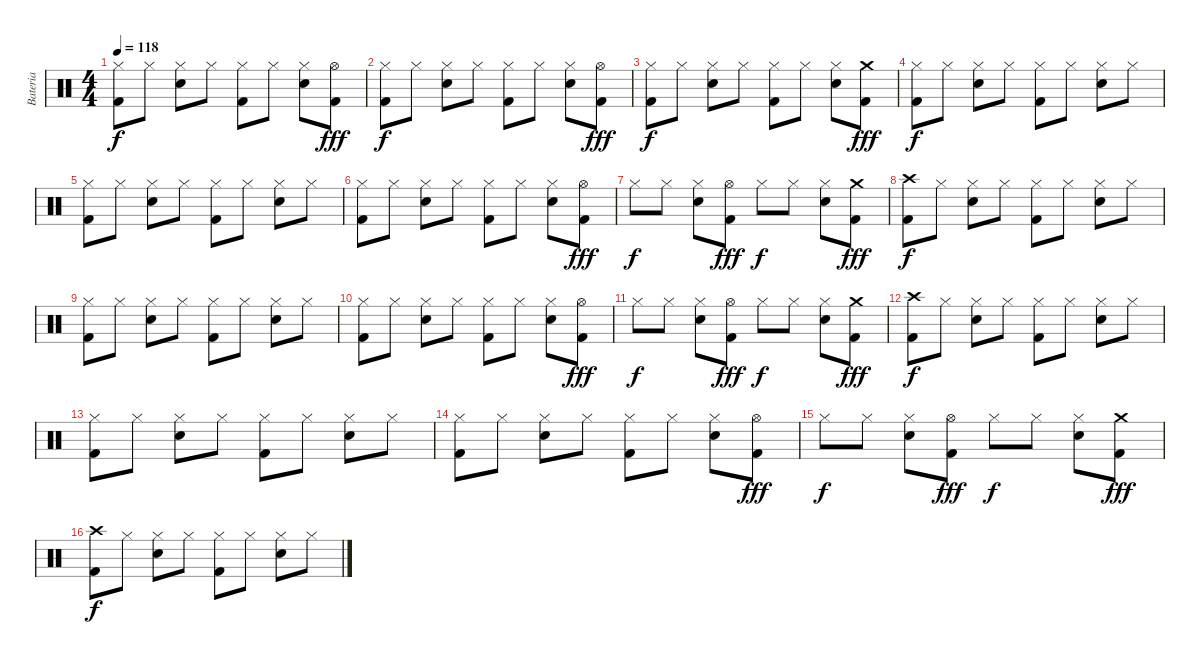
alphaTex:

\track ("Bateria" "Bateria") {instrument percussion}
\staff {score}
\articulation defaults
\ts (4 4)
\tempo 118
\clef neutral
\ks c
("Kick (hit) 2" "Hi-Hat (closed)").8{dy f} "Hi-Hat (closed)".8 ("Electric Snare (hit)" "Hi-Hat (closed)").8 "Hi-Hat (closed)".8 ("Kick (hit) 2" "Hi-Hat (closed)").8 "Hi-Hat (closed)".8 ("Electric Snare (hit)" "Hi-Hat (closed)").8 ("Kick (hit) 2" "Hi-Hat (open)").8{dy fff} |
("Kick (hit) 2" "Hi-Hat (closed)").8{dy f} "Hi-Hat (closed)".8 ("Electric Snare (hit)" "Hi-Hat (closed)").8 "Hi-Hat (closed)".8 ("Kick (hit) 2" "Hi-Hat (closed)").8 "Hi-Hat (closed)".8 ("Electric Snare (hit)" "Hi-Hat (closed)").8 ("Kick (hit) 2" "Hi-Hat (open)").8{dy fff} |
("Kick (hit) 2" "Hi-Hat (closed)").8{dy f} "Hi-Hat (closed)".8 ("Electric Snare (hit)" "Hi-Hat (closed)").8 "Hi-Hat (closed)".8 ("Kick (hit) 2" "Hi-Hat (closed)").8 "Hi-Hat (closed)".8 ("Electric Snare (hit)" "Hi-Hat (closed)").8 ("Crash medium (hit)" "Kick (hit) 2").8{dy fff} |
("Kick (hit) 2" "Hi-Hat (closed)").8{dy f} "Hi-Hat (closed)".8 ("Electric Snare (hit)" "Hi-Hat (closed)").8 "Hi-Hat (closed)".8 ("Kick (hit) 2" "Hi-Hat (closed)").8 "Hi-Hat (closed)".8 ("Electric Snare (hit)" "Hi-Hat (closed)").8 "Hi-Hat (closed)".8 |
("Kick (hit) 2" "Hi-Hat (closed)").8 "Hi-Hat (closed)".8 ("Electric Snare (hit)" "Hi-Hat (closed)").8 "Hi-Hat (closed)".8 ("Kick (hit) 2" "Hi-Hat (closed)").8 "Hi-Hat (closed)".8 ("Electric Snare (hit)" "Hi-Hat (closed)").8 "Hi-Hat (closed)".8 |
("Kick (hit) 2" "Hi-Hat (closed)").8 "Hi-Hat (closed)".8 ("Electric Snare (hit)" "Hi-Hat (closed)").8 "Hi-Hat (closed)".8 ("Kick (hit) 2" "Hi-Hat (closed)").8 "Hi-Hat (closed)".8 ("Electric Snare (hit)" "Hi-Hat (closed)").8 ("Kick (hit) 2" "Hi-Hat (open)").8{dy fff} |
"Hi-Hat (closed)".8{dy f} "Hi-Hat (closed)".8 ("Electric Snare (hit)" "Hi-Hat (closed)").8 ("Kick (hit) 2" "Hi-Hat (open)").8{dy fff} "Hi-Hat (closed)".8{dy f} "Hi-Hat (closed)".8 ("Electric Snare (hit)" "Hi-Hat (closed)").8 ("Kick (hit) 2" "Crash medium (hit)").8{dy fff} |
("Crash high (hit)" "Kick (hit) 2").8{dy f} "Hi-Hat (closed)".8 ("Electric Snare (hit)" "Hi-Hat (closed)").8 "Hi-Hat (closed)".8 ("Kick (hit) 2" "Hi-Hat (closed)").8 "Hi-Hat (closed)".8 ("Electric Snare (hit)" "Hi-Hat (closed)").8 "Hi-Hat (closed)".8 |
("Kick (hit) 2" "Hi-Hat (closed)").8 "Hi-Hat (closed)".8 ("Electric Snare (hit)" "Hi-Hat (closed)").8 "Hi-Hat (closed)".8 ("Kick (hit) 2" "Hi-Hat (closed)").8 "Hi-Hat (closed)".8 ("Electric Snare (hit)" "Hi-Hat (closed)").8 "Hi-Hat (closed)".8 |
("Kick (hit) 2" "Hi-Hat (closed)").8 "Hi-Hat (closed)".8 ("Electric Snare (hit)" "Hi-Hat (closed)").8 "Hi-Hat (closed)".8 ("Kick (hit) 2" "Hi-Hat (closed)").8 "Hi-Hat (closed)".8 ("Electric Snare (hit)" "Hi-Hat (closed)").8 ("Kick (hit) 2" "Hi-Hat (open)").8{dy fff} |
"Hi-Hat (closed)".8{dy f} "Hi-Hat (closed)".8 ("Electric Snare (hit)" "Hi-Hat (closed)").8 ("Kick (hit) 2" "Hi-Hat (open)").8{dy fff} "Hi-Hat (closed)".8{dy f} "Hi-Hat (closed)".8 ("Electric Snare (hit)" "Hi-Hat (closed)").8 ("Kick (hit) 2" "Crash medium (hit)").8{dy fff} |
("Crash high (hit)" "Kick (hit) 2").8{dy f} "Hi-Hat (closed)".8 ("Electric Snare (hit)" "Hi-Hat (closed)").8 "Hi-Hat (closed)".8 ("Kick (hit) 2" "Hi-Hat (closed)").8 "Hi-Hat (closed)".8 ("Electric Snare (hit)" "Hi-Hat (closed)").8 "Hi-Hat (closed)".8 |
("Kick (hit) 2" "Hi-Hat (closed)").8 "Hi-Hat (closed)".8 ("Electric Snare (hit)" "Hi-Hat (closed)").8 "Hi-Hat (closed)".8 ("Kick (hit) 2" "Hi-Hat (closed)").8 "Hi-Hat (closed)".8 ("Electric Snare (hit)" "Hi-Hat (closed)").8 "Hi-Hat (closed)".8 |
("Kick (hit) 2" "Hi-Hat (closed)").8 "Hi-Hat (closed)".8 ("Electric Snare (hit)" "Hi-Hat (closed)").8 "Hi-Hat (closed)".8 ("Kick (hit) 2" "Hi-Hat (closed)").8 "Hi-Hat (closed)".8 ("Electric Snare (hit)" "Hi-Hat (closed)").8 ("Kick (hit) 2" "Hi-Hat (open)").8{dy fff} |
"Hi-Hat (closed)".8{dy f} "Hi-Hat (closed)".8 ("Electric Snare (hit)" "Hi-Hat (closed)").8 ("Kick (hit) 2" "Hi-Hat (open)").8{dy fff} "Hi-Hat (closed)".8{dy f} "Hi-Hat (closed)".8 ("Electric Snare (hit)" "Hi-Hat (closed)").8 ("Kick (hit) 2" "Crash medium (hit)").8{dy fff} |
("Crash high (hit)" "Kick (hit) 2").8{dy f} "Hi-Hat (closed)".8 ("Electric Snare (hit)" "Hi-Hat (closed)").8 "Hi-Hat (closed)".8 ("Kick (hit) 2" "Hi-Hat (closed)").8 "Hi-Hat (closed)".8 ("Electric Snare (hit)" "Hi-Hat (closed)").8 "Hi-Hat (closed)".8
